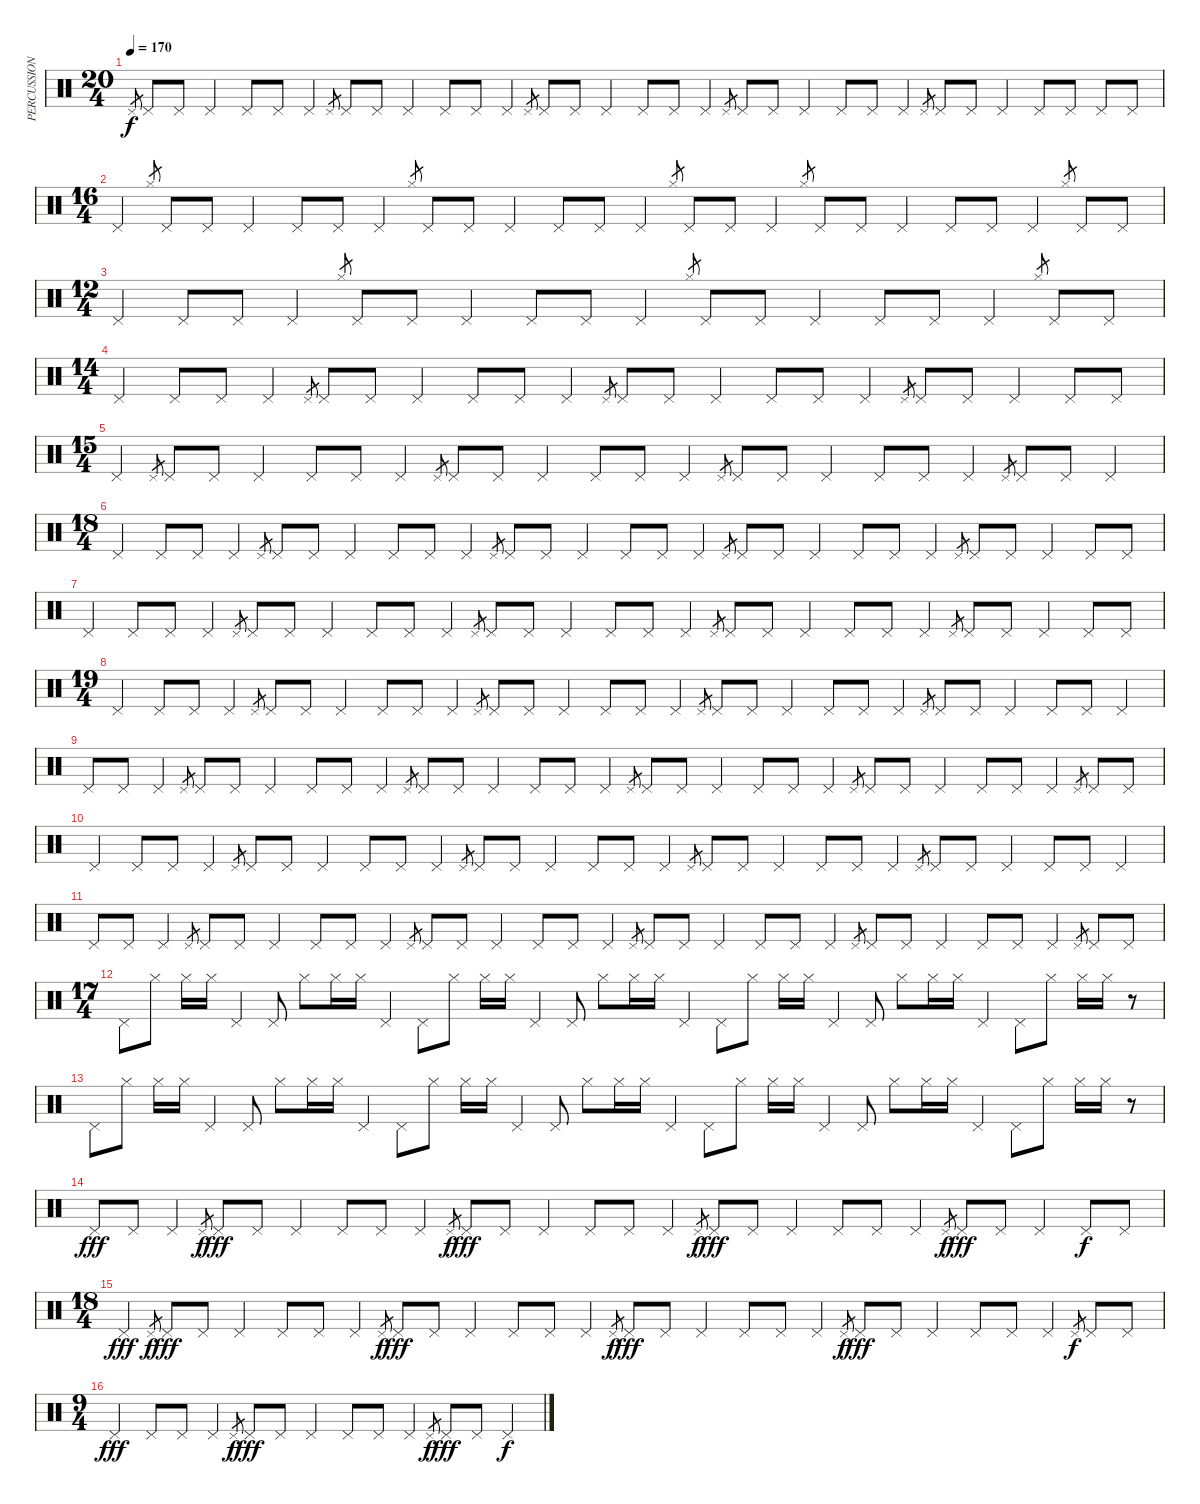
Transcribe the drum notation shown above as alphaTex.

\track ("PERCUSSION" "PERCUSSION") {instrument percussion}
\staff {score}
\articulation defaults
\ts (20 4)
\tempo 170
\clef neutral
\ks c "Pedal Hi-Hat (hit)".8{gr dy f} "Pedal Hi-Hat (hit)".8 "Pedal Hi-Hat (hit)".8 "Pedal Hi-Hat (hit)".4 "Pedal Hi-Hat (hit)".8 "Pedal Hi-Hat (hit)".8 "Pedal Hi-Hat (hit)".4 "Pedal Hi-Hat (hit)".8{gr} "Pedal Hi-Hat (hit)".8 "Pedal Hi-Hat (hit)".8 "Pedal Hi-Hat (hit)".4 "Pedal Hi-Hat (hit)".8 "Pedal Hi-Hat (hit)".8 "Pedal Hi-Hat (hit)".4 "Pedal Hi-Hat (hit)".8{gr} "Pedal Hi-Hat (hit)".8 "Pedal Hi-Hat (hit)".8 "Pedal Hi-Hat (hit)".4 "Pedal Hi-Hat (hit)".8 "Pedal Hi-Hat (hit)".8 "Pedal Hi-Hat (hit)".4 "Pedal Hi-Hat (hit)".8{gr} "Pedal Hi-Hat (hit)".8 "Pedal Hi-Hat (hit)".8 "Pedal Hi-Hat (hit)".4 "Pedal Hi-Hat (hit)".8 "Pedal Hi-Hat (hit)".8 "Pedal Hi-Hat (hit)".4 "Pedal Hi-Hat (hit)".8{gr} "Pedal Hi-Hat (hit)".8 "Pedal Hi-Hat (hit)".8 "Pedal Hi-Hat (hit)".4 "Pedal Hi-Hat (hit)".8 "Pedal Hi-Hat (hit)".8 "Pedal Hi-Hat (hit)".8 "Pedal Hi-Hat (hit)".8
|
\ts (16 4)
"Pedal Hi-Hat (hit)".4 "Hi-Hat (closed)".8{gr} "Pedal Hi-Hat (hit)".8 "Pedal Hi-Hat (hit)".8 "Pedal Hi-Hat (hit)".4 "Pedal Hi-Hat (hit)".8 "Pedal Hi-Hat (hit)".8 "Pedal Hi-Hat (hit)".4 "Hi-Hat (closed)".8{gr} "Pedal Hi-Hat (hit)".8 "Pedal Hi-Hat (hit)".8 "Pedal Hi-Hat (hit)".4 "Pedal Hi-Hat (hit)".8 "Pedal Hi-Hat (hit)".8 "Pedal Hi-Hat (hit)".4 "Hi-Hat (closed)".8{gr} "Pedal Hi-Hat (hit)".8 "Pedal Hi-Hat (hit)".8 "Pedal Hi-Hat (hit)".4 "Hi-Hat (closed)".8{gr} "Pedal Hi-Hat (hit)".8 "Pedal Hi-Hat (hit)".8 "Pedal Hi-Hat (hit)".4 "Pedal Hi-Hat (hit)".8 "Pedal Hi-Hat (hit)".8 "Pedal Hi-Hat (hit)".4 "Hi-Hat (closed)".8{gr} "Pedal Hi-Hat (hit)".8 "Pedal Hi-Hat (hit)".8 |
\ts (12 4)
"Pedal Hi-Hat (hit)".4 "Pedal Hi-Hat (hit)".8 "Pedal Hi-Hat (hit)".8 "Pedal Hi-Hat (hit)".4 "Hi-Hat (closed)".8{gr} "Pedal Hi-Hat (hit)".8 "Pedal Hi-Hat (hit)".8 "Pedal Hi-Hat (hit)".4 "Pedal Hi-Hat (hit)".8 "Pedal Hi-Hat (hit)".8 "Pedal Hi-Hat (hit)".4 "Hi-Hat (closed)".8{gr} "Pedal Hi-Hat (hit)".8 "Pedal Hi-Hat (hit)".8 "Pedal Hi-Hat (hit)".4 "Pedal Hi-Hat (hit)".8 "Pedal Hi-Hat (hit)".8 "Pedal Hi-Hat (hit)".4 "Hi-Hat (closed)".8{gr} "Pedal Hi-Hat (hit)".8 "Pedal Hi-Hat (hit)".8 |
\ts (14 4)
"Pedal Hi-Hat (hit)".4 "Pedal Hi-Hat (hit)".8 "Pedal Hi-Hat (hit)".8 "Pedal Hi-Hat (hit)".4 "Pedal Hi-Hat (hit)".8{gr} "Pedal Hi-Hat (hit)".8 "Pedal Hi-Hat (hit)".8 "Pedal Hi-Hat (hit)".4 "Pedal Hi-Hat (hit)".8 "Pedal Hi-Hat (hit)".8 "Pedal Hi-Hat (hit)".4 "Pedal Hi-Hat (hit)".8{gr} "Pedal Hi-Hat (hit)".8 "Pedal Hi-Hat (hit)".8 "Pedal Hi-Hat (hit)".4 "Pedal Hi-Hat (hit)".8 "Pedal Hi-Hat (hit)".8 "Pedal Hi-Hat (hit)".4 "Pedal Hi-Hat (hit)".8{gr} "Pedal Hi-Hat (hit)".8 "Pedal Hi-Hat (hit)".8 "Pedal Hi-Hat (hit)".4 "Pedal Hi-Hat (hit)".8 "Pedal Hi-Hat (hit)".8 |
\ts (15 4)
"Pedal Hi-Hat (hit)".4 "Pedal Hi-Hat (hit)".8{gr} "Pedal Hi-Hat (hit)".8 "Pedal Hi-Hat (hit)".8 "Pedal Hi-Hat (hit)".4 "Pedal Hi-Hat (hit)".8 "Pedal Hi-Hat (hit)".8 "Pedal Hi-Hat (hit)".4 "Pedal Hi-Hat (hit)".8{gr} "Pedal Hi-Hat (hit)".8 "Pedal Hi-Hat (hit)".8 "Pedal Hi-Hat (hit)".4 "Pedal Hi-Hat (hit)".8 "Pedal Hi-Hat (hit)".8 "Pedal Hi-Hat (hit)".4 "Pedal Hi-Hat (hit)".8{gr} "Pedal Hi-Hat (hit)".8 "Pedal Hi-Hat (hit)".8 "Pedal Hi-Hat (hit)".4 "Pedal Hi-Hat (hit)".8 "Pedal Hi-Hat (hit)".8 "Pedal Hi-Hat (hit)".4 "Pedal Hi-Hat (hit)".8{gr} "Pedal Hi-Hat (hit)".8 "Pedal Hi-Hat (hit)".8 "Pedal Hi-Hat (hit)".4 |
\ts (18 4)
"Pedal Hi-Hat (hit)".4 "Pedal Hi-Hat (hit)".8 "Pedal Hi-Hat (hit)".8 "Pedal Hi-Hat (hit)".4 "Pedal Hi-Hat (hit)".8{gr} "Pedal Hi-Hat (hit)".8 "Pedal Hi-Hat (hit)".8 "Pedal Hi-Hat (hit)".4 "Pedal Hi-Hat (hit)".8 "Pedal Hi-Hat (hit)".8 "Pedal Hi-Hat (hit)".4 "Pedal Hi-Hat (hit)".8{gr} "Pedal Hi-Hat (hit)".8 "Pedal Hi-Hat (hit)".8 "Pedal Hi-Hat (hit)".4 "Pedal Hi-Hat (hit)".8 "Pedal Hi-Hat (hit)".8 "Pedal Hi-Hat (hit)".4 "Pedal Hi-Hat (hit)".8{gr} "Pedal Hi-Hat (hit)".8 "Pedal Hi-Hat (hit)".8 "Pedal Hi-Hat (hit)".4 "Pedal Hi-Hat (hit)".8 "Pedal Hi-Hat (hit)".8 "Pedal Hi-Hat (hit)".4 "Pedal Hi-Hat (hit)".8{gr} "Pedal Hi-Hat (hit)".8 "Pedal Hi-Hat (hit)".8 "Pedal Hi-Hat (hit)".4 "Pedal Hi-Hat (hit)".8 "Pedal Hi-Hat (hit)".8 |
"Pedal Hi-Hat (hit)".4 "Pedal Hi-Hat (hit)".8 "Pedal Hi-Hat (hit)".8 "Pedal Hi-Hat (hit)".4 "Pedal Hi-Hat (hit)".8{gr} "Pedal Hi-Hat (hit)".8 "Pedal Hi-Hat (hit)".8 "Pedal Hi-Hat (hit)".4 "Pedal Hi-Hat (hit)".8 "Pedal Hi-Hat (hit)".8 "Pedal Hi-Hat (hit)".4 "Pedal Hi-Hat (hit)".8{gr} "Pedal Hi-Hat (hit)".8 "Pedal Hi-Hat (hit)".8 "Pedal Hi-Hat (hit)".4 "Pedal Hi-Hat (hit)".8 "Pedal Hi-Hat (hit)".8 "Pedal Hi-Hat (hit)".4 "Pedal Hi-Hat (hit)".8{gr} "Pedal Hi-Hat (hit)".8 "Pedal Hi-Hat (hit)".8 "Pedal Hi-Hat (hit)".4 "Pedal Hi-Hat (hit)".8 "Pedal Hi-Hat (hit)".8 "Pedal Hi-Hat (hit)".4 "Pedal Hi-Hat (hit)".8{gr} "Pedal Hi-Hat (hit)".8 "Pedal Hi-Hat (hit)".8 "Pedal Hi-Hat (hit)".4 "Pedal Hi-Hat (hit)".8 "Pedal Hi-Hat (hit)".8 |
\ts (19 4)
"Pedal Hi-Hat (hit)".4 "Pedal Hi-Hat (hit)".8 "Pedal Hi-Hat (hit)".8 "Pedal Hi-Hat (hit)".4 "Pedal Hi-Hat (hit)".8{gr} "Pedal Hi-Hat (hit)".8 "Pedal Hi-Hat (hit)".8 "Pedal Hi-Hat (hit)".4 "Pedal Hi-Hat (hit)".8 "Pedal Hi-Hat (hit)".8 "Pedal Hi-Hat (hit)".4 "Pedal Hi-Hat (hit)".8{gr} "Pedal Hi-Hat (hit)".8 "Pedal Hi-Hat (hit)".8 "Pedal Hi-Hat (hit)".4 "Pedal Hi-Hat (hit)".8 "Pedal Hi-Hat (hit)".8 "Pedal Hi-Hat (hit)".4 "Pedal Hi-Hat (hit)".8{gr} "Pedal Hi-Hat (hit)".8 "Pedal Hi-Hat (hit)".8 "Pedal Hi-Hat (hit)".4 "Pedal Hi-Hat (hit)".8 "Pedal Hi-Hat (hit)".8 "Pedal Hi-Hat (hit)".4 "Pedal Hi-Hat (hit)".8{gr} "Pedal Hi-Hat (hit)".8 "Pedal Hi-Hat (hit)".8 "Pedal Hi-Hat (hit)".4 "Pedal Hi-Hat (hit)".8 "Pedal Hi-Hat (hit)".8 "Pedal Hi-Hat (hit)".4 |
"Pedal Hi-Hat (hit)".8 "Pedal Hi-Hat (hit)".8 "Pedal Hi-Hat (hit)".4 "Pedal Hi-Hat (hit)".8{gr} "Pedal Hi-Hat (hit)".8 "Pedal Hi-Hat (hit)".8 "Pedal Hi-Hat (hit)".4 "Pedal Hi-Hat (hit)".8 "Pedal Hi-Hat (hit)".8 "Pedal Hi-Hat (hit)".4 "Pedal Hi-Hat (hit)".8{gr} "Pedal Hi-Hat (hit)".8 "Pedal Hi-Hat (hit)".8 "Pedal Hi-Hat (hit)".4 "Pedal Hi-Hat (hit)".8 "Pedal Hi-Hat (hit)".8 "Pedal Hi-Hat (hit)".4 "Pedal Hi-Hat (hit)".8{gr} "Pedal Hi-Hat (hit)".8 "Pedal Hi-Hat (hit)".8 "Pedal Hi-Hat (hit)".4 "Pedal Hi-Hat (hit)".8 "Pedal Hi-Hat (hit)".8 "Pedal Hi-Hat (hit)".4 "Pedal Hi-Hat (hit)".8{gr} "Pedal Hi-Hat (hit)".8 "Pedal Hi-Hat (hit)".8 "Pedal Hi-Hat (hit)".4 "Pedal Hi-Hat (hit)".8 "Pedal Hi-Hat (hit)".8 "Pedal Hi-Hat (hit)".4 "Pedal Hi-Hat (hit)".8{gr} "Pedal Hi-Hat (hit)".8 "Pedal Hi-Hat (hit)".8 |
"Pedal Hi-Hat (hit)".4 "Pedal Hi-Hat (hit)".8 "Pedal Hi-Hat (hit)".8 "Pedal Hi-Hat (hit)".4 "Pedal Hi-Hat (hit)".8{gr} "Pedal Hi-Hat (hit)".8 "Pedal Hi-Hat (hit)".8 "Pedal Hi-Hat (hit)".4 "Pedal Hi-Hat (hit)".8 "Pedal Hi-Hat (hit)".8 "Pedal Hi-Hat (hit)".4 "Pedal Hi-Hat (hit)".8{gr} "Pedal Hi-Hat (hit)".8 "Pedal Hi-Hat (hit)".8 "Pedal Hi-Hat (hit)".4 "Pedal Hi-Hat (hit)".8 "Pedal Hi-Hat (hit)".8 "Pedal Hi-Hat (hit)".4 "Pedal Hi-Hat (hit)".8{gr} "Pedal Hi-Hat (hit)".8 "Pedal Hi-Hat (hit)".8 "Pedal Hi-Hat (hit)".4 "Pedal Hi-Hat (hit)".8 "Pedal Hi-Hat (hit)".8 "Pedal Hi-Hat (hit)".4 "Pedal Hi-Hat (hit)".8{gr} "Pedal Hi-Hat (hit)".8 "Pedal Hi-Hat (hit)".8 "Pedal Hi-Hat (hit)".4 "Pedal Hi-Hat (hit)".8 "Pedal Hi-Hat (hit)".8 "Pedal Hi-Hat (hit)".4 |
"Pedal Hi-Hat (hit)".8 "Pedal Hi-Hat (hit)".8 "Pedal Hi-Hat (hit)".4 "Pedal Hi-Hat (hit)".8{gr} "Pedal Hi-Hat (hit)".8 "Pedal Hi-Hat (hit)".8 "Pedal Hi-Hat (hit)".4 "Pedal Hi-Hat (hit)".8 "Pedal Hi-Hat (hit)".8 "Pedal Hi-Hat (hit)".4 "Pedal Hi-Hat (hit)".8{gr} "Pedal Hi-Hat (hit)".8 "Pedal Hi-Hat (hit)".8 "Pedal Hi-Hat (hit)".4 "Pedal Hi-Hat (hit)".8 "Pedal Hi-Hat (hit)".8 "Pedal Hi-Hat (hit)".4 "Pedal Hi-Hat (hit)".8{gr} "Pedal Hi-Hat (hit)".8 "Pedal Hi-Hat (hit)".8 "Pedal Hi-Hat (hit)".4 "Pedal Hi-Hat (hit)".8 "Pedal Hi-Hat (hit)".8 "Pedal Hi-Hat (hit)".4 "Pedal Hi-Hat (hit)".8{gr} "Pedal Hi-Hat (hit)".8 "Pedal Hi-Hat (hit)".8 "Pedal Hi-Hat (hit)".4 "Pedal Hi-Hat (hit)".8 "Pedal Hi-Hat (hit)".8 "Pedal Hi-Hat (hit)".4 "Pedal Hi-Hat (hit)".8{gr} "Pedal Hi-Hat (hit)".8 "Pedal Hi-Hat (hit)".8 |
\ts (17 4)
"Pedal Hi-Hat (hit)".8 "Hi-Hat (closed)".8 "Hi-Hat (closed)".16 "Hi-Hat (closed)".16 "Pedal Hi-Hat (hit)".4 "Pedal Hi-Hat (hit)".8 "Hi-Hat (closed)".8 "Hi-Hat (closed)".16 "Hi-Hat (closed)".16 "Pedal Hi-Hat (hit)".4 "Pedal Hi-Hat (hit)".8 "Hi-Hat (closed)".8 "Hi-Hat (closed)".16 "Hi-Hat (closed)".16 "Pedal Hi-Hat (hit)".4 "Pedal Hi-Hat (hit)".8 "Hi-Hat (closed)".8 "Hi-Hat (closed)".16 "Hi-Hat (closed)".16 "Pedal Hi-Hat (hit)".4 "Pedal Hi-Hat (hit)".8 "Hi-Hat (closed)".8 "Hi-Hat (closed)".16 "Hi-Hat (closed)".16 "Pedal Hi-Hat (hit)".4 "Pedal Hi-Hat (hit)".8 "Hi-Hat (closed)".8 "Hi-Hat (closed)".16 "Hi-Hat (closed)".16 "Pedal Hi-Hat (hit)".4 "Pedal Hi-Hat (hit)".8 "Hi-Hat (closed)".8 "Hi-Hat (closed)".16 "Hi-Hat (closed)".16 r.8 |
"Pedal Hi-Hat (hit)".8 "Hi-Hat (closed)".8 "Hi-Hat (closed)".16 "Hi-Hat (closed)".16 "Pedal Hi-Hat (hit)".4 "Pedal Hi-Hat (hit)".8 "Hi-Hat (closed)".8 "Hi-Hat (closed)".16 "Hi-Hat (closed)".16 "Pedal Hi-Hat (hit)".4 "Pedal Hi-Hat (hit)".8 "Hi-Hat (closed)".8 "Hi-Hat (closed)".16 "Hi-Hat (closed)".16 "Pedal Hi-Hat (hit)".4 "Pedal Hi-Hat (hit)".8 "Hi-Hat (closed)".8 "Hi-Hat (closed)".16 "Hi-Hat (closed)".16 "Pedal Hi-Hat (hit)".4 "Pedal Hi-Hat (hit)".8 "Hi-Hat (closed)".8 "Hi-Hat (closed)".16 "Hi-Hat (closed)".16 "Pedal Hi-Hat (hit)".4 "Pedal Hi-Hat (hit)".8 "Hi-Hat (closed)".8 "Hi-Hat (closed)".16 "Hi-Hat (closed)".16 "Pedal Hi-Hat (hit)".4 "Pedal Hi-Hat (hit)".8 "Hi-Hat (closed)".8 "Hi-Hat (closed)".16 "Hi-Hat (closed)".16 r.8 |
"Pedal Hi-Hat (hit)".8{dy fff} "Pedal Hi-Hat (hit)".8 "Pedal Hi-Hat (hit)".4 "Pedal Hi-Hat (hit)".8{gr dy f} "Pedal Hi-Hat (hit)".8{dy fff} "Pedal Hi-Hat (hit)".8 "Pedal Hi-Hat (hit)".4 "Pedal Hi-Hat (hit)".8 "Pedal Hi-Hat (hit)".8 "Pedal Hi-Hat (hit)".4 "Pedal Hi-Hat (hit)".8{gr dy f} "Pedal Hi-Hat (hit)".8{dy fff} "Pedal Hi-Hat (hit)".8 "Pedal Hi-Hat (hit)".4 "Pedal Hi-Hat (hit)".8 "Pedal Hi-Hat (hit)".8 "Pedal Hi-Hat (hit)".4 "Pedal Hi-Hat (hit)".8{gr dy f} "Pedal Hi-Hat (hit)".8{dy fff} "Pedal Hi-Hat (hit)".8 "Pedal Hi-Hat (hit)".4 "Pedal Hi-Hat (hit)".8 "Pedal Hi-Hat (hit)".8 "Pedal Hi-Hat (hit)".4 "Pedal Hi-Hat (hit)".8{gr dy f} "Pedal Hi-Hat (hit)".8{dy fff} "Pedal Hi-Hat (hit)".8 "Pedal Hi-Hat (hit)".4 "Pedal Hi-Hat (hit)".8{dy f} "Pedal Hi-Hat (hit)".8 |
\ts (18 4)
"Pedal Hi-Hat (hit)".4{dy fff} "Pedal Hi-Hat (hit)".8{gr dy f} "Pedal Hi-Hat (hit)".8{dy fff} "Pedal Hi-Hat (hit)".8 "Pedal Hi-Hat (hit)".4 "Pedal Hi-Hat (hit)".8 "Pedal Hi-Hat (hit)".8 "Pedal Hi-Hat (hit)".4 "Pedal Hi-Hat (hit)".8{gr dy f} "Pedal Hi-Hat (hit)".8{dy fff} "Pedal Hi-Hat (hit)".8 "Pedal Hi-Hat (hit)".4 "Pedal Hi-Hat (hit)".8 "Pedal Hi-Hat (hit)".8 "Pedal Hi-Hat (hit)".4 "Pedal Hi-Hat (hit)".8{gr dy f} "Pedal Hi-Hat (hit)".8{dy fff} "Pedal Hi-Hat (hit)".8 "Pedal Hi-Hat (hit)".4 "Pedal Hi-Hat (hit)".8 "Pedal Hi-Hat (hit)".8 "Pedal Hi-Hat (hit)".4 "Pedal Hi-Hat (hit)".8{gr dy f} "Pedal Hi-Hat (hit)".8{dy fff} "Pedal Hi-Hat (hit)".8 "Pedal Hi-Hat (hit)".4 "Pedal Hi-Hat (hit)".8 "Pedal Hi-Hat (hit)".8 "Pedal Hi-Hat (hit)".4 "Pedal Hi-Hat (hit)".8{gr dy f} "Pedal Hi-Hat (hit)".8 "Pedal Hi-Hat (hit)".8 |
\ts (9 4)
"Pedal Hi-Hat (hit)".4{dy fff} "Pedal Hi-Hat (hit)".8 "Pedal Hi-Hat (hit)".8 "Pedal Hi-Hat (hit)".4 "Pedal Hi-Hat (hit)".8{gr dy f} "Pedal Hi-Hat (hit)".8{dy fff} "Pedal Hi-Hat (hit)".8 "Pedal Hi-Hat (hit)".4 "Pedal Hi-Hat (hit)".8 "Pedal Hi-Hat (hit)".8 "Pedal Hi-Hat (hit)".4 "Pedal Hi-Hat (hit)".8{gr dy f} "Pedal Hi-Hat (hit)".8{dy fff} "Pedal Hi-Hat (hit)".8 "Pedal Hi-Hat (hit)".4{dy f}
